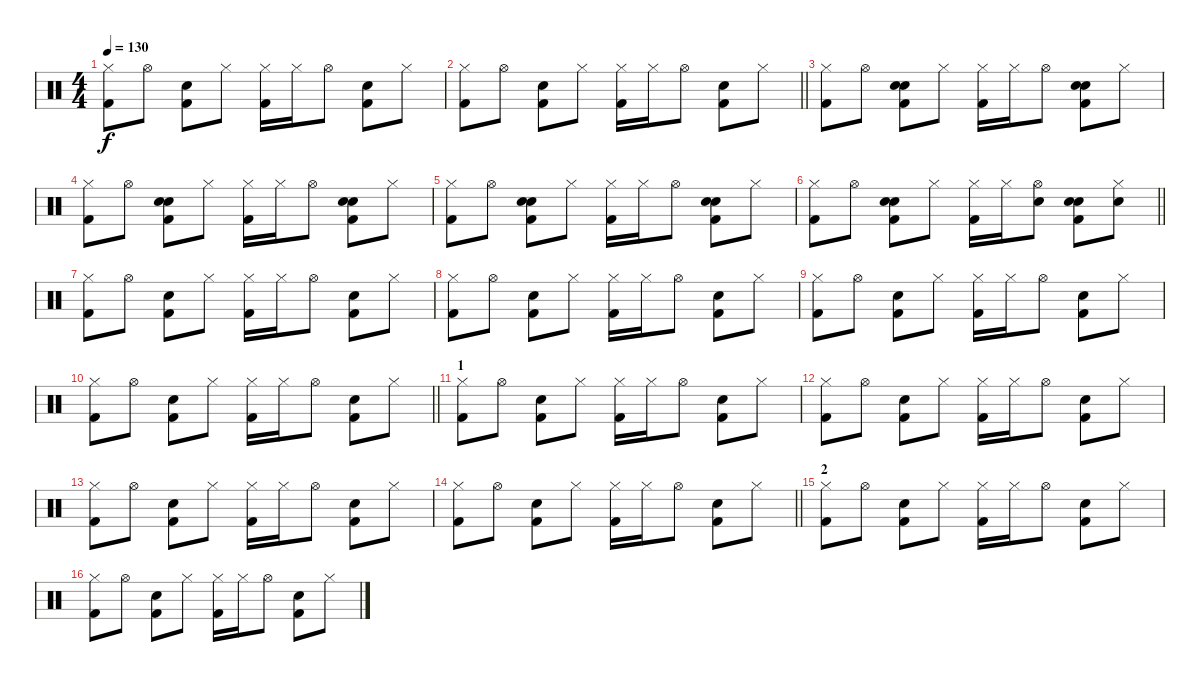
\track "" {instrument percussion}
\staff {score}
\articulation defaults
\ts (4 4)
\tempo 130
\clef neutral
\ks c
("Hi-Hat (closed)" "Kick (hit) 2").8{dy f} "Hi-Hat (open)".8 ("Electric Snare (hit)" "Kick (hit) 2").8 "Hi-Hat (closed)".8 ("Hi-Hat (closed)" "Kick (hit) 2").16 "Hi-Hat (closed)".16 "Hi-Hat (open)".8 ("Electric Snare (hit)" "Kick (hit) 2").8 "Hi-Hat (closed)".8 |
\barLineRight lightlight
("Hi-Hat (closed)" "Kick (hit) 2").8 "Hi-Hat (open)".8 ("Electric Snare (hit)" "Kick (hit) 2").8 "Hi-Hat (closed)".8 ("Hi-Hat (closed)" "Kick (hit) 2").16 "Hi-Hat (closed)".16 "Hi-Hat (open)".8 ("Electric Snare (hit)" "Kick (hit) 2").8 "Hi-Hat (closed)".8 |
\section ("" "")
("Hi-Hat (closed)" "Kick (hit) 2").8 "Hi-Hat (open)".8 ("Hand Clap (hit)" "Electric Snare (hit)" "Kick (hit) 2").8 "Hi-Hat (closed)".8 ("Hi-Hat (closed)" "Kick (hit) 2").16 "Hi-Hat (closed)".16 "Hi-Hat (open)".8 ("Hand Clap (hit)" "Electric Snare (hit)" "Kick (hit) 2").8 "Hi-Hat (closed)".8 |
("Hi-Hat (closed)" "Kick (hit) 2").8 "Hi-Hat (open)".8 ("Hand Clap (hit)" "Electric Snare (hit)" "Kick (hit) 2").8 "Hi-Hat (closed)".8 ("Hi-Hat (closed)" "Kick (hit) 2").16 "Hi-Hat (closed)".16 "Hi-Hat (open)".8 ("Hand Clap (hit)" "Electric Snare (hit)" "Kick (hit) 2").8 "Hi-Hat (closed)".8 |
("Hi-Hat (closed)" "Kick (hit) 2").8 "Hi-Hat (open)".8 ("Hand Clap (hit)" "Electric Snare (hit)" "Kick (hit) 2").8 "Hi-Hat (closed)".8 ("Hi-Hat (closed)" "Kick (hit) 2").16 "Hi-Hat (closed)".16 "Hi-Hat (open)".8 ("Hand Clap (hit)" "Electric Snare (hit)" "Kick (hit) 2").8 "Hi-Hat (closed)".8 |
\barLineRight lightlight
("Hi-Hat (closed)" "Kick (hit) 2").8 "Hi-Hat (open)".8 ("Hand Clap (hit)" "Electric Snare (hit)" "Kick (hit) 2").8 "Hi-Hat (closed)".8 ("Hi-Hat (closed)" "Kick (hit) 2").16 "Hi-Hat (closed)".16 ("Hand Clap (hit)" "Hi-Hat (open)").8 ("Hand Clap (hit)" "Electric Snare (hit)" "Kick (hit) 2").8 ("Hand Clap (hit)" "Hi-Hat (closed)").8 |
\section ("" "")
("Hi-Hat (closed)" "Kick (hit) 2").8 "Hi-Hat (open)".8 ("Electric Snare (hit)" "Kick (hit) 2").8 "Hi-Hat (closed)".8 ("Hi-Hat (closed)" "Kick (hit) 2").16 "Hi-Hat (closed)".16 "Hi-Hat (open)".8 ("Electric Snare (hit)" "Kick (hit) 2").8 "Hi-Hat (closed)".8 |
("Hi-Hat (closed)" "Kick (hit) 2").8 "Hi-Hat (open)".8 ("Electric Snare (hit)" "Kick (hit) 2").8 "Hi-Hat (closed)".8 ("Hi-Hat (closed)" "Kick (hit) 2").16 "Hi-Hat (closed)".16 "Hi-Hat (open)".8 ("Electric Snare (hit)" "Kick (hit) 2").8 "Hi-Hat (closed)".8 |
("Hi-Hat (closed)" "Kick (hit) 2").8 "Hi-Hat (open)".8 ("Electric Snare (hit)" "Kick (hit) 2").8 "Hi-Hat (closed)".8 ("Hi-Hat (closed)" "Kick (hit) 2").16 "Hi-Hat (closed)".16 "Hi-Hat (open)".8 ("Electric Snare (hit)" "Kick (hit) 2").8 "Hi-Hat (closed)".8 |
\barLineRight lightlight
("Hi-Hat (closed)" "Kick (hit) 2").8 "Hi-Hat (open)".8 ("Electric Snare (hit)" "Kick (hit) 2").8 "Hi-Hat (closed)".8 ("Hi-Hat (closed)" "Kick (hit) 2").16 "Hi-Hat (closed)".16 "Hi-Hat (open)".8 ("Electric Snare (hit)" "Kick (hit) 2").8 "Hi-Hat (closed)".8 |
\section ("" "1")
("Hi-Hat (closed)" "Kick (hit) 2").8 "Hi-Hat (open)".8 ("Electric Snare (hit)" "Kick (hit) 2").8 "Hi-Hat (closed)".8 ("Hi-Hat (closed)" "Kick (hit) 2").16 "Hi-Hat (closed)".16 "Hi-Hat (open)".8 ("Electric Snare (hit)" "Kick (hit) 2").8 "Hi-Hat (closed)".8 |
("Hi-Hat (closed)" "Kick (hit) 2").8 "Hi-Hat (open)".8 ("Electric Snare (hit)" "Kick (hit) 2").8 "Hi-Hat (closed)".8 ("Hi-Hat (closed)" "Kick (hit) 2").16 "Hi-Hat (closed)".16 "Hi-Hat (open)".8 ("Electric Snare (hit)" "Kick (hit) 2").8 "Hi-Hat (closed)".8 |
("Hi-Hat (closed)" "Kick (hit) 2").8 "Hi-Hat (open)".8 ("Electric Snare (hit)" "Kick (hit) 2").8 "Hi-Hat (closed)".8 ("Hi-Hat (closed)" "Kick (hit) 2").16 "Hi-Hat (closed)".16 "Hi-Hat (open)".8 ("Electric Snare (hit)" "Kick (hit) 2").8 "Hi-Hat (closed)".8 |
\barLineRight lightlight
("Hi-Hat (closed)" "Kick (hit) 2").8 "Hi-Hat (open)".8 ("Electric Snare (hit)" "Kick (hit) 2").8 "Hi-Hat (closed)".8 ("Hi-Hat (closed)" "Kick (hit) 2").16 "Hi-Hat (closed)".16 "Hi-Hat (open)".8 ("Electric Snare (hit)" "Kick (hit) 2").8 "Hi-Hat (closed)".8 |
\section ("" "2")
("Hi-Hat (closed)" "Kick (hit) 2").8 "Hi-Hat (open)".8 ("Electric Snare (hit)" "Kick (hit) 2").8 "Hi-Hat (closed)".8 ("Hi-Hat (closed)" "Kick (hit) 2").16 "Hi-Hat (closed)".16 "Hi-Hat (open)".8 ("Electric Snare (hit)" "Kick (hit) 2").8 "Hi-Hat (closed)".8 |
("Hi-Hat (closed)" "Kick (hit) 2").8 "Hi-Hat (open)".8 ("Electric Snare (hit)" "Kick (hit) 2").8 "Hi-Hat (closed)".8 ("Hi-Hat (closed)" "Kick (hit) 2").16 "Hi-Hat (closed)".16 "Hi-Hat (open)".8 ("Electric Snare (hit)" "Kick (hit) 2").8 "Hi-Hat (closed)".8
